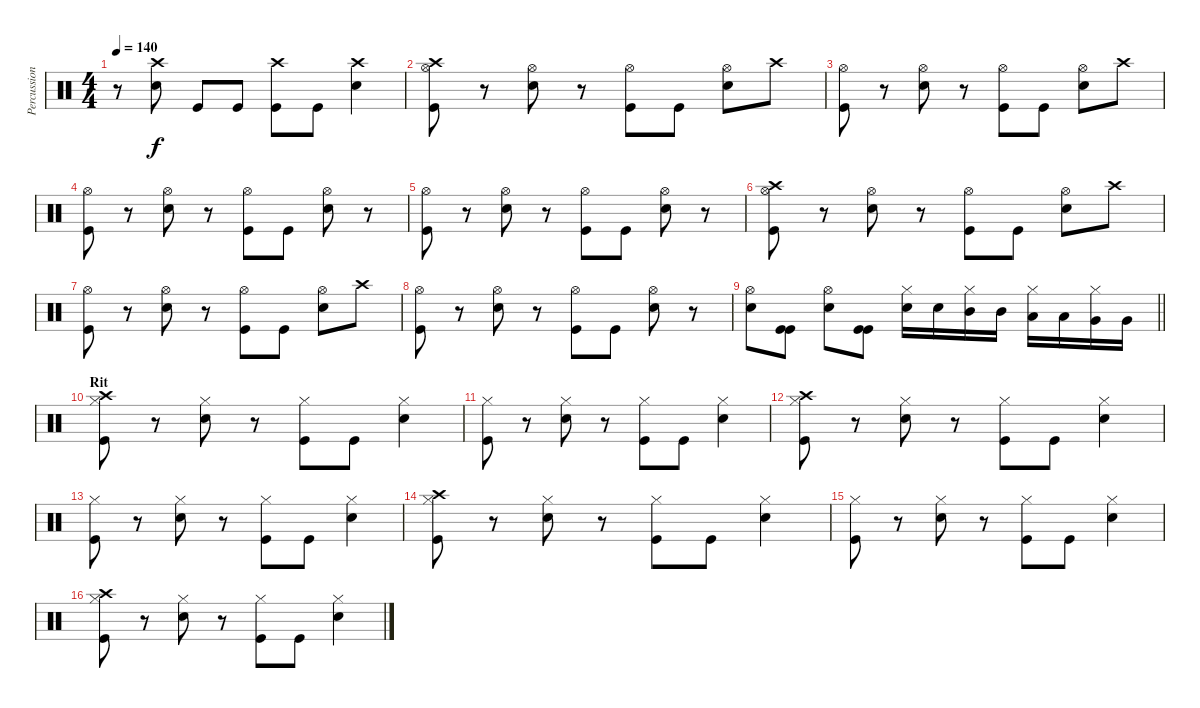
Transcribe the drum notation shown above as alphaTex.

\track ("Percussioni" "Percussion") {instrument percussion}
\staff {score}
\articulation defaults
\ts (4 4)
\tempo 140
\clef neutral
\ks c
r.8{dy f} ("Crash high (hit)" "Snare (hit) 2").8 "Kick (hit)".8 "Kick (hit)".8 ("Crash high (hit)" "Kick (hit)").8 "Kick (hit)".8 ("Crash high (hit)" "Snare (hit) 2").4 |
("Hi-Hat (open)" "Crash high (hit)" "Kick (hit)").8 r.8 ("Hi-Hat (open)" "Snare (hit) 2").8 r.8 ("Hi-Hat (open)" "Kick (hit)").8 "Kick (hit)".8 ("Hi-Hat (open)" "Snare (hit) 2").8 "Crash high (hit)".8 |
("Hi-Hat (open)" "Kick (hit)").8 r.8 ("Hi-Hat (open)" "Snare (hit) 2").8 r.8 ("Hi-Hat (open)" "Kick (hit)").8 "Kick (hit)".8 ("Hi-Hat (open)" "Snare (hit) 2").8 "Crash high (hit)".8 |
("Hi-Hat (open)" "Kick (hit)").8 r.8 ("Hi-Hat (open)" "Snare (hit) 2").8 r.8 ("Hi-Hat (open)" "Kick (hit)").8 "Kick (hit)".8 ("Hi-Hat (open)" "Snare (hit) 2").8 r.8 |
("Hi-Hat (open)" "Kick (hit)").8 r.8 ("Hi-Hat (open)" "Snare (hit) 2").8 r.8 ("Hi-Hat (open)" "Kick (hit)").8 "Kick (hit)".8 ("Hi-Hat (open)" "Snare (hit) 2").8 r.8 |
("Hi-Hat (open)" "Crash high (hit)" "Kick (hit)").8 r.8 ("Hi-Hat (open)" "Snare (hit) 2").8 r.8 ("Hi-Hat (open)" "Kick (hit)").8 "Kick (hit)".8 ("Hi-Hat (open)" "Snare (hit) 2").8 "Crash high (hit)".8 |
("Hi-Hat (open)" "Kick (hit)").8 r.8 ("Hi-Hat (open)" "Snare (hit) 2").8 r.8 ("Hi-Hat (open)" "Kick (hit)").8 "Kick (hit)".8 ("Hi-Hat (open)" "Snare (hit) 2").8 "Crash high (hit)".8 |
("Hi-Hat (open)" "Kick (hit)").8 r.8 ("Hi-Hat (open)" "Snare (hit) 2").8 r.8 ("Hi-Hat (open)" "Kick (hit)").8 "Kick (hit)".8 ("Hi-Hat (open)" "Snare (hit) 2").8 r.8 |
\barLineRight lightlight
("Hi-Hat (open)" "Snare (hit) 2").8 ("Kick (hit)" "Kick (hit)").8 ("Hi-Hat (open)" "Snare (hit) 2").8 ("Kick (hit)" "Kick (hit)").8 ("Hi-Hat (closed)" "Snare (hit) 2").16 "Snare (hit) 2".16 ("Hi-Hat (closed)" "Mid Tom (hit)").16 "Mid Tom (hit)".16 ("Hi-Hat (closed)" "Low Tom (hit)").16 "Low Tom (hit)".16 ("Hi-Hat (closed)" "Very Low Tom (hit)").16 "Very Low Tom (hit)".16 |
\section ("" "Rit")
("Crash high (hit)" "Hi-Hat (closed)" "Kick (hit)").8 r.8 ("Hi-Hat (closed)" "Snare (hit) 2").8 r.8 ("Hi-Hat (closed)" "Kick (hit)").8 "Kick (hit)".8 ("Hi-Hat (closed)" "Snare (hit) 2").4 |
("Hi-Hat (closed)" "Kick (hit)").8 r.8 ("Hi-Hat (closed)" "Snare (hit) 2").8 r.8 ("Hi-Hat (closed)" "Kick (hit)").8 "Kick (hit)".8 ("Hi-Hat (closed)" "Snare (hit) 2").4 |
("Crash high (hit)" "Hi-Hat (closed)" "Kick (hit)").8 r.8 ("Hi-Hat (closed)" "Snare (hit) 2").8 r.8 ("Hi-Hat (closed)" "Kick (hit)").8 "Kick (hit)".8 ("Hi-Hat (closed)" "Snare (hit) 2").4 |
("Hi-Hat (closed)" "Kick (hit)").8 r.8 ("Hi-Hat (closed)" "Snare (hit) 2").8 r.8 ("Hi-Hat (closed)" "Kick (hit)").8 "Kick (hit)".8 ("Hi-Hat (closed)" "Snare (hit) 2").4 |
("Crash high (hit)" "Hi-Hat (closed)" "Kick (hit)").8 r.8 ("Hi-Hat (closed)" "Snare (hit) 2").8 r.8 ("Hi-Hat (closed)" "Kick (hit)").8 "Kick (hit)".8 ("Hi-Hat (closed)" "Snare (hit) 2").4 |
("Hi-Hat (closed)" "Kick (hit)").8 r.8 ("Hi-Hat (closed)" "Snare (hit) 2").8 r.8 ("Hi-Hat (closed)" "Kick (hit)").8 "Kick (hit)".8 ("Hi-Hat (closed)" "Snare (hit) 2").4 |
("Crash high (hit)" "Hi-Hat (closed)" "Kick (hit)").8 r.8 ("Hi-Hat (closed)" "Snare (hit) 2").8 r.8 ("Hi-Hat (closed)" "Kick (hit)").8 "Kick (hit)".8 ("Hi-Hat (closed)" "Snare (hit) 2").4
